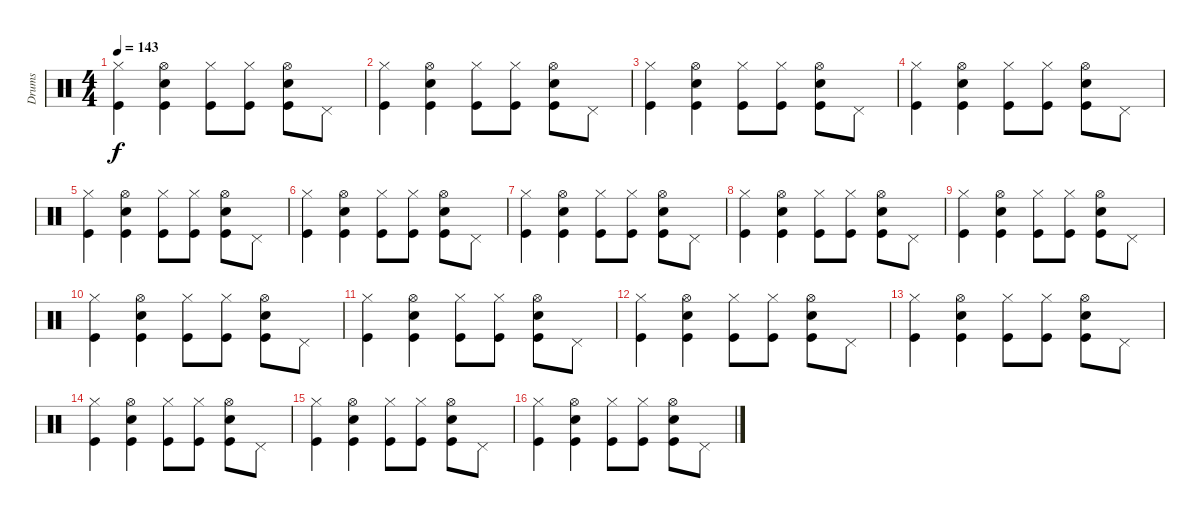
\track ("Drums" "Drums") {instrument percussion}
\staff {score}
\articulation defaults
\ts (4 4)
\tempo 143
\clef neutral
\ks c
("Hi-Hat (closed)" "Kick (hit)").4{dy f} ("Snare (hit) 2" "Hi-Hat (open)" "Kick (hit)").4 ("Hi-Hat (closed)" "Kick (hit)").8 ("Hi-Hat (closed)" "Kick (hit)").8 ("Snare (hit) 2" "Hi-Hat (open)" "Kick (hit)").8 "Pedal Hi-Hat (hit)".8 |
("Hi-Hat (closed)" "Kick (hit)").4 ("Snare (hit) 2" "Hi-Hat (open)" "Kick (hit)").4 ("Hi-Hat (closed)" "Kick (hit)").8 ("Hi-Hat (closed)" "Kick (hit)").8 ("Snare (hit) 2" "Hi-Hat (open)" "Kick (hit)").8 "Pedal Hi-Hat (hit)".8 |
("Hi-Hat (closed)" "Kick (hit)").4 ("Snare (hit) 2" "Hi-Hat (open)" "Kick (hit)").4 ("Hi-Hat (closed)" "Kick (hit)").8 ("Hi-Hat (closed)" "Kick (hit)").8 ("Snare (hit) 2" "Hi-Hat (open)" "Kick (hit)").8 "Pedal Hi-Hat (hit)".8 |
("Hi-Hat (closed)" "Kick (hit)").4 ("Snare (hit) 2" "Hi-Hat (open)" "Kick (hit)").4 ("Hi-Hat (closed)" "Kick (hit)").8 ("Hi-Hat (closed)" "Kick (hit)").8 ("Snare (hit) 2" "Hi-Hat (open)" "Kick (hit)").8 "Pedal Hi-Hat (hit)".8 |
("Hi-Hat (closed)" "Kick (hit)").4 ("Snare (hit) 2" "Hi-Hat (open)" "Kick (hit)").4 ("Hi-Hat (closed)" "Kick (hit)").8 ("Hi-Hat (closed)" "Kick (hit)").8 ("Snare (hit) 2" "Hi-Hat (open)" "Kick (hit)").8 "Pedal Hi-Hat (hit)".8 |
("Hi-Hat (closed)" "Kick (hit)").4 ("Snare (hit) 2" "Hi-Hat (open)" "Kick (hit)").4 ("Hi-Hat (closed)" "Kick (hit)").8 ("Hi-Hat (closed)" "Kick (hit)").8 ("Snare (hit) 2" "Hi-Hat (open)" "Kick (hit)").8 "Pedal Hi-Hat (hit)".8 |
("Hi-Hat (closed)" "Kick (hit)").4 ("Snare (hit) 2" "Hi-Hat (open)" "Kick (hit)").4 ("Hi-Hat (closed)" "Kick (hit)").8 ("Hi-Hat (closed)" "Kick (hit)").8 ("Snare (hit) 2" "Hi-Hat (open)" "Kick (hit)").8 "Pedal Hi-Hat (hit)".8 |
("Hi-Hat (closed)" "Kick (hit)").4 ("Snare (hit) 2" "Hi-Hat (open)" "Kick (hit)").4 ("Hi-Hat (closed)" "Kick (hit)").8 ("Hi-Hat (closed)" "Kick (hit)").8 ("Snare (hit) 2" "Hi-Hat (open)" "Kick (hit)").8 "Pedal Hi-Hat (hit)".8 |
("Hi-Hat (closed)" "Kick (hit)").4 ("Snare (hit) 2" "Hi-Hat (open)" "Kick (hit)").4 ("Hi-Hat (closed)" "Kick (hit)").8 ("Hi-Hat (closed)" "Kick (hit)").8 ("Snare (hit) 2" "Hi-Hat (open)" "Kick (hit)").8 "Pedal Hi-Hat (hit)".8 |
("Hi-Hat (closed)" "Kick (hit)").4 ("Snare (hit) 2" "Hi-Hat (open)" "Kick (hit)").4 ("Hi-Hat (closed)" "Kick (hit)").8 ("Hi-Hat (closed)" "Kick (hit)").8 ("Snare (hit) 2" "Hi-Hat (open)" "Kick (hit)").8 "Pedal Hi-Hat (hit)".8 |
("Hi-Hat (closed)" "Kick (hit)").4 ("Snare (hit) 2" "Hi-Hat (open)" "Kick (hit)").4 ("Hi-Hat (closed)" "Kick (hit)").8 ("Hi-Hat (closed)" "Kick (hit)").8 ("Snare (hit) 2" "Hi-Hat (open)" "Kick (hit)").8 "Pedal Hi-Hat (hit)".8 |
("Hi-Hat (closed)" "Kick (hit)").4 ("Snare (hit) 2" "Hi-Hat (open)" "Kick (hit)").4 ("Hi-Hat (closed)" "Kick (hit)").8 ("Hi-Hat (closed)" "Kick (hit)").8 ("Snare (hit) 2" "Hi-Hat (open)" "Kick (hit)").8 "Pedal Hi-Hat (hit)".8 |
("Hi-Hat (closed)" "Kick (hit)").4 ("Snare (hit) 2" "Hi-Hat (open)" "Kick (hit)").4 ("Hi-Hat (closed)" "Kick (hit)").8 ("Hi-Hat (closed)" "Kick (hit)").8 ("Snare (hit) 2" "Hi-Hat (open)" "Kick (hit)").8 "Pedal Hi-Hat (hit)".8 |
("Hi-Hat (closed)" "Kick (hit)").4 ("Snare (hit) 2" "Hi-Hat (open)" "Kick (hit)").4 ("Hi-Hat (closed)" "Kick (hit)").8 ("Hi-Hat (closed)" "Kick (hit)").8 ("Snare (hit) 2" "Hi-Hat (open)" "Kick (hit)").8 "Pedal Hi-Hat (hit)".8 |
("Hi-Hat (closed)" "Kick (hit)").4 ("Snare (hit) 2" "Hi-Hat (open)" "Kick (hit)").4 ("Hi-Hat (closed)" "Kick (hit)").8 ("Hi-Hat (closed)" "Kick (hit)").8 ("Snare (hit) 2" "Hi-Hat (open)" "Kick (hit)").8 "Pedal Hi-Hat (hit)".8 |
("Hi-Hat (closed)" "Kick (hit)").4 ("Snare (hit) 2" "Hi-Hat (open)" "Kick (hit)").4 ("Hi-Hat (closed)" "Kick (hit)").8 ("Hi-Hat (closed)" "Kick (hit)").8 ("Snare (hit) 2" "Hi-Hat (open)" "Kick (hit)").8 "Pedal Hi-Hat (hit)".8
